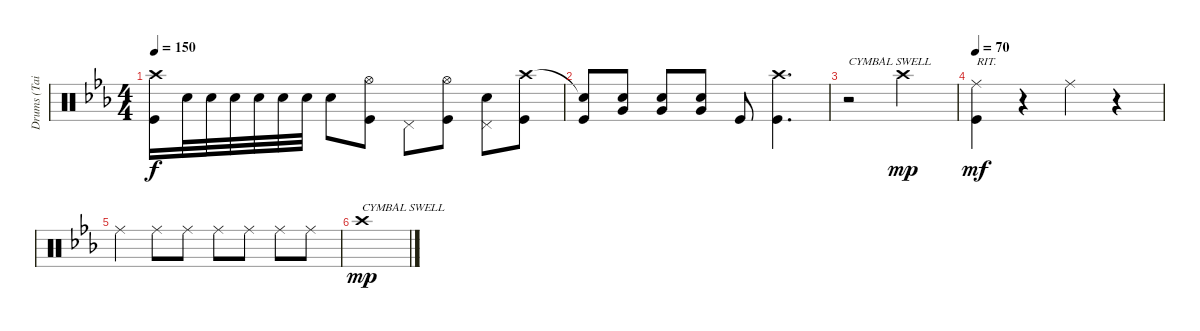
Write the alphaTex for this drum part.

\track ("Drums (Tainaka Ritsu)" "Drums (Tai") {instrument percussion}
\staff {score}
\articulation defaults
\ts (4 4)
\tempo 150
\clef neutral
\ks eb
("Crash high (hit)" "Kick (hit)").16{dy f} "Snare (hit) 2".32 "Snare (hit) 2".32 "Snare (hit) 2".32 "Snare (hit) 2".32 "Snare (hit) 2".32 "Snare (hit) 2".32 "Snare (hit) 2".8 ("Hi-Hat (open)" "Kick (hit)").8 "Pedal Hi-Hat (hit)".8 ("Hi-Hat (open)" "Kick (hit)").8 ("Pedal Hi-Hat (hit)" "Snare (hit) 2").8 ("Crash high (hit)" "Kick (hit)").8 |
("Snare (hit)"{t} "Kick (hit)").8 ("Snare (hit) 2" "Very Low Tom (hit)").8 ("Snare (hit) 2" "Very Low Tom (hit)").8 ("Snare (hit) 2" "Very Low Tom (hit)").8 "Kick (hit)".8 ("Crash high (hit)" "Kick (hit)").4{d} |
r.2{txt "CYMBAL SWELL"} "Crash high (hit)".2{dy mp} |
\tempo 70
("Ride (middle)" "Kick (hit)").4{txt "RIT." dy mf} r.4 "Ride (middle)".4 r.4 |
"Ride (middle)".4 "Ride (middle)".8 "Ride (middle)".8 "Ride (middle)".8 "Ride (middle)".8 "Ride (middle)".8 "Ride (middle)".8 |
"Crash high (hit)".1{txt "CYMBAL SWELL" dy mp}
